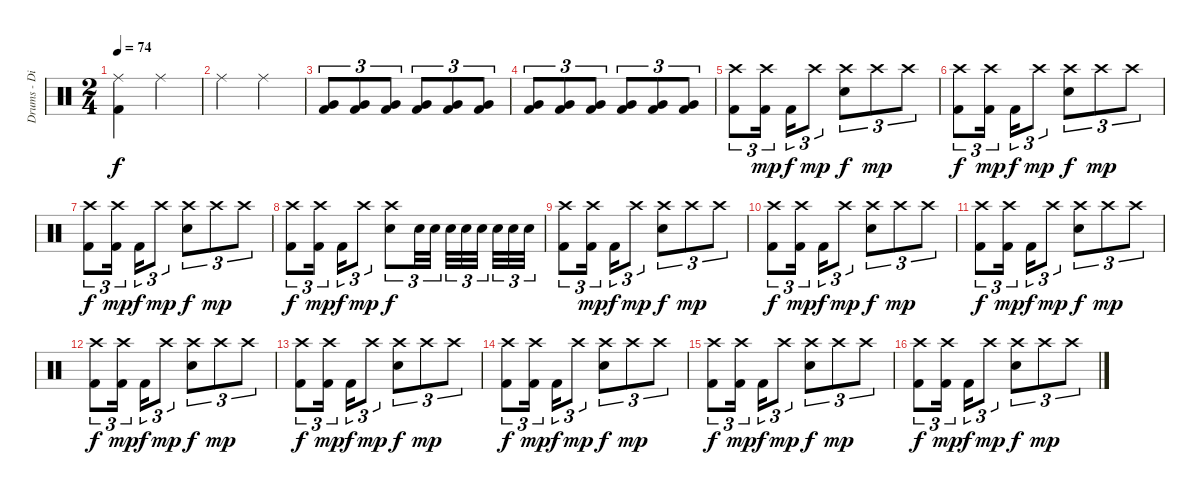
\track ("Drums - Dino Campanella" "Drums - Di") {instrument percussion}
\staff {score}
\articulation defaults
\ts (2 4)
\tempo 74
\clef neutral
\ks c
("Ride (middle)" "Kick (hit) 2").4{dy f} "Ride (middle)".4 |
"Ride (middle)".4 "Ride (middle)".4 |
("Very Low Tom (hit)" "Kick (hit) 2").8{tu (3 2) volume 3} ("Very Low Tom (hit)" "Kick (hit) 2").8{tu (3 2) volume 13} ("Very Low Tom (hit)" "Kick (hit) 2").8{tu (3 2)} ("Very Low Tom (hit)" "Kick (hit) 2").8{tu (3 2)} ("Very Low Tom (hit)" "Kick (hit) 2").8{tu (3 2)} ("Very Low Tom (hit)" "Kick (hit) 2").8{tu (3 2)} |
("Very Low Tom (hit)" "Kick (hit) 2").8{tu (3 2)} ("Very Low Tom (hit)" "Kick (hit) 2").8{tu (3 2)} ("Very Low Tom (hit)" "Kick (hit) 2").8{tu (3 2)} ("Very Low Tom (hit)" "Kick (hit) 2").8{tu (3 2)} ("Very Low Tom (hit)" "Kick (hit) 2").8{tu (3 2)} ("Very Low Tom (hit)" "Kick (hit) 2").8{tu (3 2)} |
("Crash high (hit)" "Kick (hit) 2").8{tu (3 2)} ("Crash high (hit)" "Kick (hit) 2").16{tu (3 2) dy mp} "Kick (hit) 2".16{tu (3 2) dy f} "Crash high (hit)".8{tu (3 2) dy mp} ("Crash high (hit)" "Snare (hit) 2").8{tu (3 2) dy f} "Crash high (hit)".8{tu (3 2) dy mp} "Crash high (hit)".8{tu (3 2)} |
("Crash high (hit)" "Kick (hit) 2").8{tu (3 2) dy f} ("Crash high (hit)" "Kick (hit) 2").16{tu (3 2) dy mp} "Kick (hit) 2".16{tu (3 2) dy f} "Crash high (hit)".8{tu (3 2) dy mp} ("Crash high (hit)" "Snare (hit) 2").8{tu (3 2) dy f} "Crash high (hit)".8{tu (3 2) dy mp} "Crash high (hit)".8{tu (3 2)} |
("Crash high (hit)" "Kick (hit) 2").8{tu (3 2) dy f} ("Crash high (hit)" "Kick (hit) 2").16{tu (3 2) dy mp} "Kick (hit) 2".16{tu (3 2) dy f} "Crash high (hit)".8{tu (3 2) dy mp} ("Crash high (hit)" "Snare (hit) 2").8{tu (3 2) dy f} "Crash high (hit)".8{tu (3 2) dy mp} "Crash high (hit)".8{tu (3 2)} |
("Crash high (hit)" "Kick (hit) 2").8{tu (3 2) dy f} ("Crash high (hit)" "Kick (hit) 2").16{tu (3 2) dy mp} "Kick (hit) 2".16{tu (3 2) dy f} "Crash high (hit)".8{tu (3 2) dy mp} ("Crash high (hit)" "Snare (hit) 2").8{tu (3 2) dy f} "Snare (hit) 2".32{tu (3 2)} "Snare (hit) 2".32{tu (3 2)} "Snare (hit) 2".32{tu (3 2)} "Snare (hit) 2".32{tu (3 2)} "Snare (hit) 2".32{tu (3 2)} "Snare (hit) 2".32{tu (3 2)} "Snare (hit) 2".32{tu (3 2)} "Snare (hit) 2".32{tu (3 2)} |
("Crash high (hit)" "Kick (hit) 2").8{tu (3 2)} ("Crash high (hit)" "Kick (hit) 2").16{tu (3 2) dy mp} "Kick (hit) 2".16{tu (3 2) dy f} "Crash high (hit)".8{tu (3 2) dy mp} ("Crash high (hit)" "Snare (hit) 2").8{tu (3 2) dy f} "Crash high (hit)".8{tu (3 2) dy mp} "Crash high (hit)".8{tu (3 2)} |
("Crash high (hit)" "Kick (hit) 2").8{tu (3 2) dy f} ("Crash high (hit)" "Kick (hit) 2").16{tu (3 2) dy mp} "Kick (hit) 2".16{tu (3 2) dy f} "Crash high (hit)".8{tu (3 2) dy mp} ("Crash high (hit)" "Snare (hit) 2").8{tu (3 2) dy f} "Crash high (hit)".8{tu (3 2) dy mp} "Crash high (hit)".8{tu (3 2)} |
("Crash high (hit)" "Kick (hit) 2").8{tu (3 2) dy f} ("Crash high (hit)" "Kick (hit) 2").16{tu (3 2) dy mp} "Kick (hit) 2".16{tu (3 2) dy f} "Crash high (hit)".8{tu (3 2) dy mp} ("Crash high (hit)" "Snare (hit) 2").8{tu (3 2) dy f} "Crash high (hit)".8{tu (3 2) dy mp} "Crash high (hit)".8{tu (3 2)} |
("Crash high (hit)" "Kick (hit) 2").8{tu (3 2) dy f} ("Crash high (hit)" "Kick (hit) 2").16{tu (3 2) dy mp} "Kick (hit) 2".16{tu (3 2) dy f} "Crash high (hit)".8{tu (3 2) dy mp} ("Crash high (hit)" "Snare (hit) 2").8{tu (3 2) dy f} "Crash high (hit)".8{tu (3 2) dy mp} "Crash high (hit)".8{tu (3 2)} |
("Crash high (hit)" "Kick (hit) 2").8{tu (3 2) dy f} ("Crash high (hit)" "Kick (hit) 2").16{tu (3 2) dy mp} "Kick (hit) 2".16{tu (3 2) dy f} "Crash high (hit)".8{tu (3 2) dy mp} ("Crash high (hit)" "Snare (hit) 2").8{tu (3 2) dy f} "Crash high (hit)".8{tu (3 2) dy mp} "Crash high (hit)".8{tu (3 2)} |
("Crash high (hit)" "Kick (hit) 2").8{tu (3 2) dy f} ("Crash high (hit)" "Kick (hit) 2").16{tu (3 2) dy mp} "Kick (hit) 2".16{tu (3 2) dy f} "Crash high (hit)".8{tu (3 2) dy mp} ("Crash high (hit)" "Snare (hit) 2").8{tu (3 2) dy f} "Crash high (hit)".8{tu (3 2) dy mp} "Crash high (hit)".8{tu (3 2)} |
("Crash high (hit)" "Kick (hit) 2").8{tu (3 2) dy f} ("Crash high (hit)" "Kick (hit) 2").16{tu (3 2) dy mp} "Kick (hit) 2".16{tu (3 2) dy f} "Crash high (hit)".8{tu (3 2) dy mp} ("Crash high (hit)" "Snare (hit) 2").8{tu (3 2) dy f} "Crash high (hit)".8{tu (3 2) dy mp} "Crash high (hit)".8{tu (3 2)} |
("Crash high (hit)" "Kick (hit) 2").8{tu (3 2) dy f} ("Crash high (hit)" "Kick (hit) 2").16{tu (3 2) dy mp} "Kick (hit) 2".16{tu (3 2) dy f} "Crash high (hit)".8{tu (3 2) dy mp} ("Crash high (hit)" "Snare (hit) 2").8{tu (3 2) dy f} "Crash high (hit)".8{tu (3 2) dy mp} "Crash high (hit)".8{tu (3 2)}
